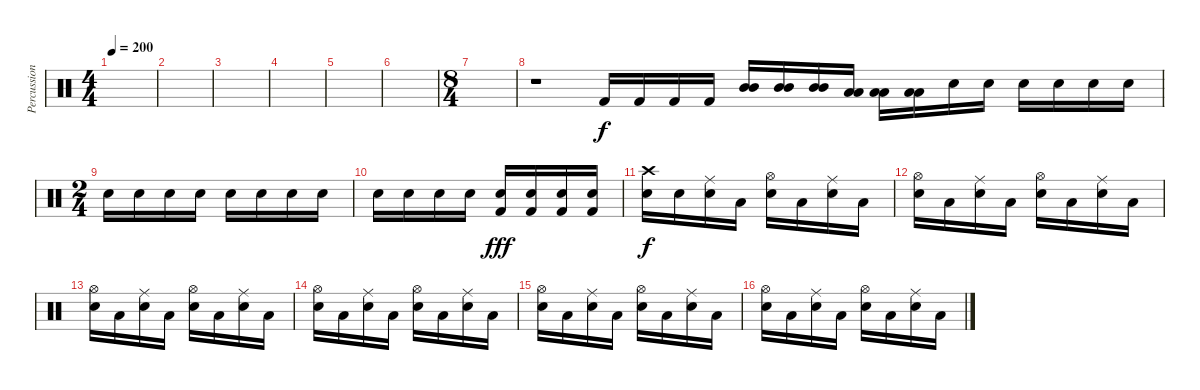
\track ("Percussion" "Percussion") {instrument percussion}
\staff {score}
\articulation defaults
\ts (4 4)
\tempo 200
\clef neutral
\ks c
|
|
|
|
|
|
\ts (8 4)
|
r.1 "Kick (hit) 2".16 "Kick (hit) 2".16 "Kick (hit) 2".16 "Kick (hit) 2".16 ("Mid Tom (hit)" "Mid Tom (hit)").16{dy f} ("Mid Tom (hit)" "Mid Tom (hit)").16 ("Mid Tom (hit)" "Mid Tom (hit)").16 ("Low Tom (hit)" "Low Tom (hit)").16 ("Low Tom (hit)" "Low Tom (hit)").16 ("Low Tom (hit)" "Low Tom (hit)").16 "Electric Snare (hit)".16 "Electric Snare (hit)".16 "Electric Snare (hit)".16 "Electric Snare (hit)".16 "Electric Snare (hit)".16 "Electric Snare (hit)".16 |
\ts (2 4)
"Electric Snare (hit)".16 "Electric Snare (hit)".16 "Electric Snare (hit)".16 "Electric Snare (hit)".16 "Electric Snare (hit)".16 "Electric Snare (hit)".16 "Electric Snare (hit)".16 "Electric Snare (hit)".16 |
"Electric Snare (hit)".16 "Electric Snare (hit)".16 "Electric Snare (hit)".16 "Electric Snare (hit)".16 ("Electric Snare (hit)" "Kick (hit) 2").16{dy fff} ("Electric Snare (hit)" "Kick (hit) 2").16 ("Electric Snare (hit)" "Kick (hit) 2").16 ("Electric Snare (hit)" "Kick (hit) 2").16 |
("Crash high (hit)" "Electric Snare (hit)").16{dy f} "Electric Snare (hit)".16 ("Ride (middle)" "Electric Snare (hit)").16 "Low Tom (hit)".16 ("Hi-Hat (open)" "Electric Snare (hit)").16 "Low Tom (hit)".16 ("Ride (middle)" "Electric Snare (hit)").16 "Low Tom (hit)".16 |
("Hi-Hat (open)" "Electric Snare (hit)").16 "Low Tom (hit)".16 ("Ride (middle)" "Electric Snare (hit)").16 "Low Tom (hit)".16 ("Hi-Hat (open)" "Electric Snare (hit)").16 "Low Tom (hit)".16 ("Ride (middle)" "Electric Snare (hit)").16 "Low Tom (hit)".16 |
("Hi-Hat (open)" "Electric Snare (hit)").16 "Low Tom (hit)".16 ("Ride (middle)" "Electric Snare (hit)").16 "Low Tom (hit)".16 ("Hi-Hat (open)" "Electric Snare (hit)").16 "Low Tom (hit)".16 ("Ride (middle)" "Electric Snare (hit)").16 "Low Tom (hit)".16 |
("Hi-Hat (open)" "Electric Snare (hit)").16 "Low Tom (hit)".16 ("Ride (middle)" "Electric Snare (hit)").16 "Low Tom (hit)".16 ("Hi-Hat (open)" "Electric Snare (hit)").16 "Low Tom (hit)".16 ("Ride (middle)" "Electric Snare (hit)").16 "Low Tom (hit)".16 |
("Hi-Hat (open)" "Electric Snare (hit)").16 "Low Tom (hit)".16 ("Ride (middle)" "Electric Snare (hit)").16 "Low Tom (hit)".16 ("Hi-Hat (open)" "Electric Snare (hit)").16 "Low Tom (hit)".16 ("Ride (middle)" "Electric Snare (hit)").16 "Low Tom (hit)".16 |
("Hi-Hat (open)" "Electric Snare (hit)").16 "Low Tom (hit)".16 ("Ride (middle)" "Electric Snare (hit)").16 "Low Tom (hit)".16 ("Hi-Hat (open)" "Electric Snare (hit)").16 "Low Tom (hit)".16 ("Ride (middle)" "Electric Snare (hit)").16 "Low Tom (hit)".16
